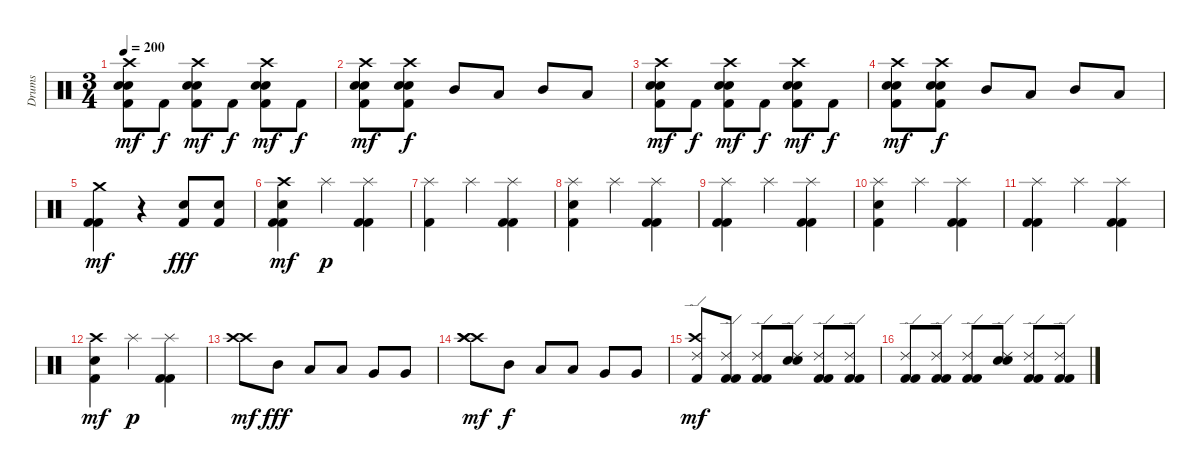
\track ("Drums" "Drums") {instrument percussion bank 41}
\staff
\articulation defaults
\ts (3 4)
\tempo 200
\clef neutral
\ks c
("Kick (hit) 2" "Snare (hit) 2" "Electric Snare (hit)" "Crash high (hit)").8{dy mf} "Kick (hit) 2".8{dy f} ("Kick (hit) 2" "Snare (hit) 2" "Electric Snare (hit)" "Crash high (hit)").8{dy mf} "Kick (hit) 2".8{dy f} ("Kick (hit) 2" "Snare (hit) 2" "Snare (hit) 2" "Crash high (hit)").8{dy mf} "Kick (hit) 2".8{dy f} |
("Kick (hit) 2" "Snare (hit) 2" "Electric Snare (hit)" "Crash high (hit)").8{dy mf} ("Kick (hit) 2" "Snare (hit) 2" "Electric Snare (hit)" "Crash high (hit)").8{dy f} "Mid Tom (hit)".8 "Low Tom (hit)".8 "Mid Tom (hit)".8 "Low Tom (hit)".8 |
("Kick (hit) 2" "Snare (hit) 2" "Electric Snare (hit)" "Crash high (hit)").8{dy mf} "Kick (hit) 2".8{dy f} ("Kick (hit) 2" "Snare (hit) 2" "Electric Snare (hit)" "Crash high (hit)").8{dy mf} "Kick (hit) 2".8{dy f} ("Kick (hit) 2" "Snare (hit) 2" "Snare (hit) 2" "Crash high (hit)").8{dy mf} "Kick (hit) 2".8{dy f} |
("Kick (hit) 2" "Snare (hit) 2" "Electric Snare (hit)" "Crash high (hit)").8{dy mf} ("Kick (hit) 2" "Snare (hit) 2" "Electric Snare (hit)" "Crash high (hit)").8{dy f} "Mid Tom (hit)".8 "Low Tom (hit)".8 "Mid Tom (hit)".8 "Low Tom (hit)".8 |
("Kick (hit) 2" "Kick (hit) 2" "Crash medium (hit)").4{dy mf} r.4 ("Kick (hit) 2" "Snare (hit) 2").8{dy fff} ("Kick (hit) 2" "Snare (hit) 2").8 |
("Kick (hit) 2" "Kick (hit) 2" "Crash high (hit)" "Electric Snare (hit)").4{dy mf} "Splash (hit)".4{dy p} ("Kick (hit) 2" "Kick (hit) 2" "Splash (hit)").4 |
("Kick (hit) 2" "Splash (hit)").4 "Splash (hit)".4 ("Kick (hit) 2" "Kick (hit) 2" "Splash (hit)").4 |
("Kick (hit) 2" "Snare (hit) 2" "Splash (hit)").4 "Splash (hit)".4 ("Kick (hit) 2" "Kick (hit) 2" "Splash (hit)").4 |
("Kick (hit) 2" "Kick (hit) 2" "Splash (hit)").4 "Splash (hit)".4 ("Kick (hit) 2" "Kick (hit) 2" "Splash (hit)").4 |
("Snare (hit) 2" "Kick (hit) 2" "Splash (hit)").4 "Splash (hit)".4 ("Kick (hit) 2" "Kick (hit) 2" "Splash (hit)").4 |
("Kick (hit) 2" "Kick (hit) 2" "Splash (hit)").4 "Splash (hit)".4 ("Kick (hit) 2" "Kick (hit) 2" "Splash (hit)").4 |
("Kick (hit) 2" "Snare (hit) 2" "Crash high (hit)").4{dy mf} "Splash (hit)".4{dy p} ("Kick (hit) 2" "Kick (hit) 2" "Splash (hit)").4 |
("Crash high (hit)" "Crash high (hit)").8{dy mf} "Mid Tom (hit)".8{dy fff} "Low Tom (hit)".8 "Low Tom (hit)".8 "Very Low Tom (hit)".8 "Very Low Tom (hit)".8 |
("Crash high (hit)" "Crash high (hit)" "Crash high (hit)").8{dy mf} "Mid Tom (hit)".8{dy f} "Low Tom (hit)".8 "Low Tom (hit)".8 "Very Low Tom (hit)".8 "Very Low Tom (hit)".8 |
("Kick (hit) 2" "Crash high (hit)" "Ride (edge) 2").8{dy mf} ("Kick (hit) 2" "Kick (hit) 2" "Ride (edge) 2").8 ("Kick (hit) 2" "Kick (hit) 2" "Ride (edge) 2").8 ("Snare (hit) 2" "Electric Snare (hit)" "Ride (edge) 2").8 ("Kick (hit) 2" "Kick (hit) 2" "Ride (edge) 2").8 ("Kick (hit) 2" "Kick (hit) 2" "Ride (edge) 2").8 |
("Kick (hit) 2" "Kick (hit) 2" "Ride (edge) 2").8 ("Kick (hit) 2" "Kick (hit) 2" "Ride (edge) 2").8 ("Kick (hit) 2" "Kick (hit) 2" "Ride (edge) 2").8 ("Snare (hit) 2" "Electric Snare (hit)" "Ride (edge) 2").8 ("Kick (hit) 2" "Kick (hit) 2" "Ride (edge) 2").8 ("Kick (hit) 2" "Kick (hit) 2" "Ride (edge) 2").8
